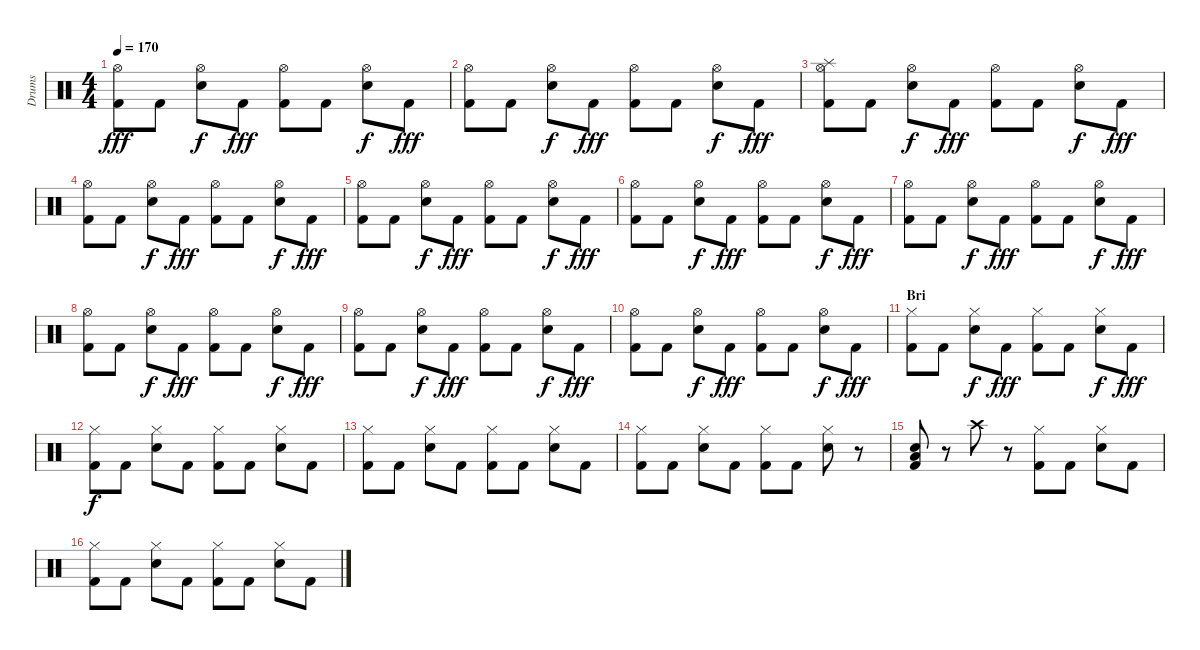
\track ("Drums" "Drums") {instrument percussion}
\staff {score}
\articulation defaults
\ts (4 4)
\tempo 170
\clef neutral
\ks c
("Hi-Hat (open)" "Kick (hit) 2").8{dy fff} "Kick (hit) 2".8 ("Hi-Hat (open)" "Snare (hit) 2").8{dy f} "Kick (hit) 2".8{dy fff} ("Hi-Hat (open)" "Kick (hit) 2").8 "Kick (hit) 2".8 ("Hi-Hat (open)" "Snare (hit) 2").8{dy f} "Kick (hit) 2".8{dy fff} |
("Hi-Hat (open)" "Kick (hit) 2").8 "Kick (hit) 2".8 ("Hi-Hat (open)" "Snare (hit) 2").8{dy f} "Kick (hit) 2".8{dy fff} ("Hi-Hat (open)" "Kick (hit) 2").8 "Kick (hit) 2".8 ("Hi-Hat (open)" "Snare (hit) 2").8{dy f} "Kick (hit) 2".8{dy fff} |
("Hi-Hat (open)" "Splash (hit)" "Kick (hit) 2").8 "Kick (hit) 2".8 ("Hi-Hat (open)" "Snare (hit) 2").8{dy f} "Kick (hit) 2".8{dy fff} ("Hi-Hat (open)" "Kick (hit) 2").8 "Kick (hit) 2".8 ("Hi-Hat (open)" "Snare (hit) 2").8{dy f} "Kick (hit) 2".8{dy fff} |
("Hi-Hat (open)" "Kick (hit) 2").8 "Kick (hit) 2".8 ("Hi-Hat (open)" "Snare (hit) 2").8{dy f} "Kick (hit) 2".8{dy fff} ("Hi-Hat (open)" "Kick (hit) 2").8 "Kick (hit) 2".8 ("Hi-Hat (open)" "Snare (hit) 2").8{dy f} "Kick (hit) 2".8{dy fff} |
("Hi-Hat (open)" "Kick (hit) 2").8 "Kick (hit) 2".8 ("Hi-Hat (open)" "Snare (hit) 2").8{dy f} "Kick (hit) 2".8{dy fff} ("Hi-Hat (open)" "Kick (hit) 2").8 "Kick (hit) 2".8 ("Hi-Hat (open)" "Snare (hit) 2").8{dy f} "Kick (hit) 2".8{dy fff} |
("Hi-Hat (open)" "Kick (hit) 2").8 "Kick (hit) 2".8 ("Hi-Hat (open)" "Snare (hit) 2").8{dy f} "Kick (hit) 2".8{dy fff} ("Hi-Hat (open)" "Kick (hit) 2").8 "Kick (hit) 2".8 ("Hi-Hat (open)" "Snare (hit) 2").8{dy f} "Kick (hit) 2".8{dy fff} |
("Hi-Hat (open)" "Kick (hit) 2").8 "Kick (hit) 2".8 ("Hi-Hat (open)" "Snare (hit) 2").8{dy f} "Kick (hit) 2".8{dy fff} ("Hi-Hat (open)" "Kick (hit) 2").8 "Kick (hit) 2".8 ("Hi-Hat (open)" "Snare (hit) 2").8{dy f} "Kick (hit) 2".8{dy fff} |
("Hi-Hat (open)" "Kick (hit) 2").8 "Kick (hit) 2".8 ("Hi-Hat (open)" "Snare (hit) 2").8{dy f} "Kick (hit) 2".8{dy fff} ("Hi-Hat (open)" "Kick (hit) 2").8 "Kick (hit) 2".8 ("Hi-Hat (open)" "Snare (hit) 2").8{dy f} "Kick (hit) 2".8{dy fff} |
("Hi-Hat (open)" "Kick (hit) 2").8 "Kick (hit) 2".8 ("Hi-Hat (open)" "Snare (hit) 2").8{dy f} "Kick (hit) 2".8{dy fff} ("Hi-Hat (open)" "Kick (hit) 2").8 "Kick (hit) 2".8 ("Hi-Hat (open)" "Snare (hit) 2").8{dy f} "Kick (hit) 2".8{dy fff} |
("Hi-Hat (open)" "Kick (hit) 2").8 "Kick (hit) 2".8 ("Hi-Hat (open)" "Snare (hit) 2").8{dy f} "Kick (hit) 2".8{dy fff} ("Hi-Hat (open)" "Kick (hit) 2").8 "Kick (hit) 2".8 ("Hi-Hat (open)" "Snare (hit) 2").8{dy f} "Kick (hit) 2".8{dy fff} |
\section ("" "Bri")
("Hi-Hat (closed)" "Kick (hit) 2").8 "Kick (hit) 2".8 ("Hi-Hat (closed)" "Snare (hit) 2").8{dy f} "Kick (hit) 2".8{dy fff} ("Hi-Hat (closed)" "Kick (hit) 2").8 "Kick (hit) 2".8 ("Hi-Hat (closed)" "Snare (hit) 2").8{dy f} "Kick (hit) 2".8{dy fff} |
("Hi-Hat (closed)" "Kick (hit) 2").8{dy f} "Kick (hit) 2".8 ("Hi-Hat (closed)" "Snare (hit) 2").8 "Kick (hit) 2".8 ("Hi-Hat (closed)" "Kick (hit) 2").8 "Kick (hit) 2".8 ("Hi-Hat (closed)" "Snare (hit) 2").8 "Kick (hit) 2".8 |
("Hi-Hat (closed)" "Kick (hit) 2").8 "Kick (hit) 2".8 ("Hi-Hat (closed)" "Snare (hit) 2").8 "Kick (hit) 2".8 ("Hi-Hat (closed)" "Kick (hit) 2").8 "Kick (hit) 2".8 ("Hi-Hat (closed)" "Snare (hit) 2").8 "Kick (hit) 2".8 |
("Hi-Hat (closed)" "Kick (hit) 2").8 "Kick (hit) 2".8 ("Hi-Hat (closed)" "Snare (hit) 2").8 "Kick (hit) 2".8 ("Hi-Hat (closed)" "Kick (hit) 2").8 "Kick (hit) 2".8 ("Hi-Hat (closed)" "Snare (hit) 2").8 r.8 |
("Snare (hit) 2" "Low Floor Tom (hit)" "Kick (hit) 2").8 r.8 "Crash high (hit)".8 r.8 ("Hi-Hat (closed)" "Kick (hit) 2").8 "Kick (hit) 2".8 ("Hi-Hat (closed)" "Snare (hit) 2").8 "Kick (hit) 2".8 |
("Hi-Hat (closed)" "Kick (hit) 2").8 "Kick (hit) 2".8 ("Hi-Hat (closed)" "Snare (hit) 2").8 "Kick (hit) 2".8 ("Hi-Hat (closed)" "Kick (hit) 2").8 "Kick (hit) 2".8 ("Hi-Hat (closed)" "Snare (hit) 2").8 "Kick (hit) 2".8
